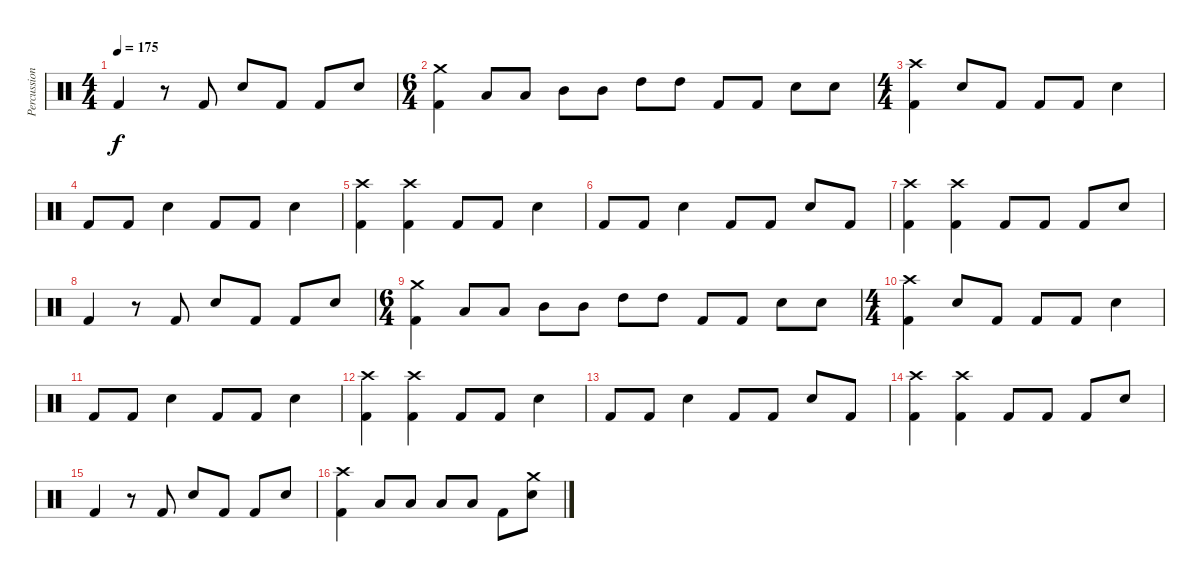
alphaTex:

\track ("Percussion" "Percussion") {instrument percussion}
\staff {score}
\articulation defaults
\ts (4 4)
\tempo 175
\clef neutral
\ks c "Kick (hit) 2".4{dy f}
r.8 "Kick (hit) 2".8 "Snare (hit) 2".8 "Kick (hit) 2".8 "Kick (hit) 2".8 "Snare (hit) 2".8 |
\ts (6 4)
("Crash medium (hit)" "Kick (hit) 2").4 "Low Tom (hit)".8 "Low Tom (hit)".8 "Mid Tom (hit)".8 "Mid Tom (hit)".8 "High Tom (hit)".8 "High Tom (hit)".8 "Kick (hit) 2".8 "Kick (hit) 2".8 "Snare (hit) 2".8 "Snare (hit) 2".8 |
\ts (4 4)
("Crash high (hit)" "Kick (hit) 2").4 "Snare (hit) 2".8 "Kick (hit) 2".8 "Kick (hit) 2".8 "Kick (hit) 2".8 "Snare (hit) 2".4 |
"Kick (hit) 2".8 "Kick (hit) 2".8 "Snare (hit) 2".4 "Kick (hit) 2".8 "Kick (hit) 2".8 "Snare (hit) 2".4 |
("Crash high (hit)" "Kick (hit) 2").4 ("Crash high (hit)" "Kick (hit) 2").4 "Kick (hit) 2".8 "Kick (hit) 2".8 "Snare (hit) 2".4 |
"Kick (hit) 2".8 "Kick (hit) 2".8 "Snare (hit) 2".4 "Kick (hit) 2".8 "Kick (hit) 2".8 "Snare (hit) 2".8 "Kick (hit) 2".8 |
("Crash high (hit)" "Kick (hit) 2").4 ("Crash high (hit)" "Kick (hit) 2").4 "Kick (hit) 2".8 "Kick (hit) 2".8 "Kick (hit) 2".8 "Snare (hit) 2".8 |
"Kick (hit) 2".4 r.8 "Kick (hit) 2".8 "Snare (hit) 2".8 "Kick (hit) 2".8 "Kick (hit) 2".8 "Snare (hit) 2".8 |
\ts (6 4)
("Crash medium (hit)" "Kick (hit) 2").4 "Low Tom (hit)".8 "Low Tom (hit)".8 "Mid Tom (hit)".8 "Mid Tom (hit)".8 "High Tom (hit)".8 "High Tom (hit)".8 "Kick (hit) 2".8 "Kick (hit) 2".8 "Snare (hit) 2".8 "Snare (hit) 2".8 |
\ts (4 4)
("Crash high (hit)" "Kick (hit) 2").4 "Snare (hit) 2".8 "Kick (hit) 2".8 "Kick (hit) 2".8 "Kick (hit) 2".8 "Snare (hit) 2".4 |
"Kick (hit) 2".8 "Kick (hit) 2".8 "Snare (hit) 2".4 "Kick (hit) 2".8 "Kick (hit) 2".8 "Snare (hit) 2".4 |
("Crash high (hit)" "Kick (hit) 2").4 ("Crash high (hit)" "Kick (hit) 2").4 "Kick (hit) 2".8 "Kick (hit) 2".8 "Snare (hit) 2".4 |
"Kick (hit) 2".8 "Kick (hit) 2".8 "Snare (hit) 2".4 "Kick (hit) 2".8 "Kick (hit) 2".8 "Snare (hit) 2".8 "Kick (hit) 2".8 |
("Crash high (hit)" "Kick (hit) 2").4 ("Crash high (hit)" "Kick (hit) 2").4 "Kick (hit) 2".8 "Kick (hit) 2".8 "Kick (hit) 2".8 "Snare (hit) 2".8 |
"Kick (hit) 2".4 r.8 "Kick (hit) 2".8 "Snare (hit) 2".8 "Kick (hit) 2".8 "Kick (hit) 2".8 "Snare (hit) 2".8 |
("Crash high (hit)" "Kick (hit) 2").4 "Low Tom (hit)".8 "Low Tom (hit)".8 "Low Tom (hit)".8 "Low Tom (hit)".8 "Kick (hit) 2".8 ("Crash medium (hit)" "Snare (hit) 2").8
